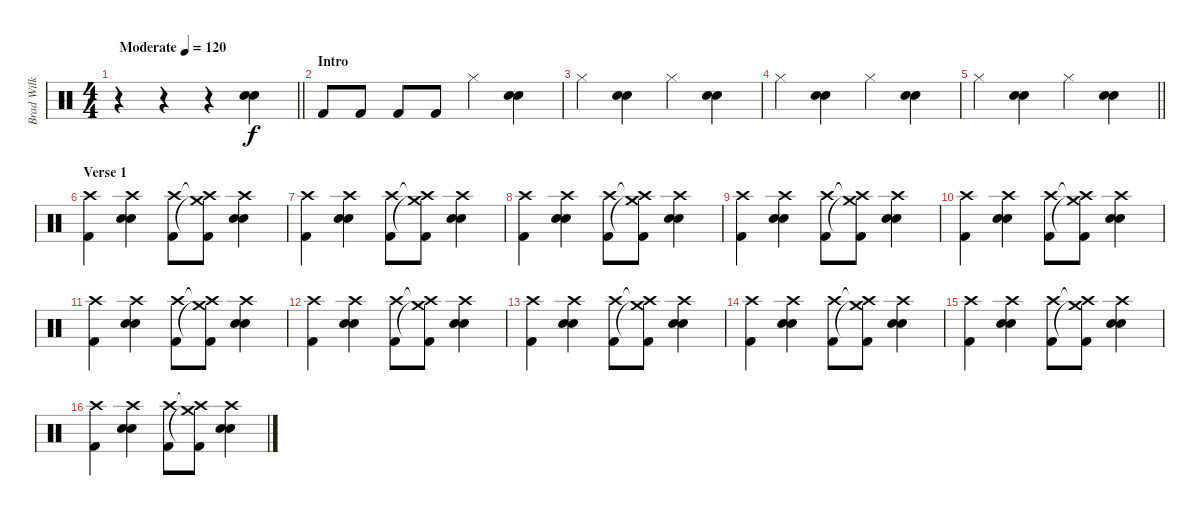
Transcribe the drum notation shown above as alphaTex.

\track ("Brad Wilk" "Brad Wilk") {instrument percussion}
\staff {score}
\articulation defaults
\ts (4 4)
\tempo (120 "Moderate")
\clef neutral
\barLineRight lightlight
\ks c
r.4{dy f} r.4 r.4 ("Electric Snare (hit)" "Snare (hit) 2").4 |
\section ("" "Intro")
"Kick (hit) 2".8 "Kick (hit) 2".8 "Kick (hit) 2".8 "Kick (hit) 2".8 "Hi-Hat (closed)".4 ("Electric Snare (hit)" "Snare (hit) 2").4 |
"Hi-Hat (closed)".4 ("Electric Snare (hit)" "Snare (hit) 2").4 "Hi-Hat (closed)".4 ("Electric Snare (hit)" "Snare (hit) 2").4 |
"Hi-Hat (closed)".4 ("Electric Snare (hit)" "Snare (hit) 2").4 "Hi-Hat (closed)".4 ("Electric Snare (hit)" "Snare (hit) 2").4 |
\barLineRight lightlight "Hi-Hat (closed)".4
("Electric Snare (hit)" "Snare (hit) 2").4 "Hi-Hat (closed)".4 ("Electric Snare (hit)" "Snare (hit) 2").4 |
\section ("" "Verse 1")
("Crash high (hit)" "Kick (hit) 2").4 ("Electric Snare (hit)" "Snare (hit) 2" "Crash high (hit)").4 ("Crash high (hit)" "Kick (hit) 2").8 ("Crash high (hit)"{t} "Crash medium (hit)"{t} "Kick (hit) 2").8 ("Electric Snare (hit)" "Snare (hit) 2" "Crash high (hit)").4 |
("Crash high (hit)" "Kick (hit) 2").4 ("Electric Snare (hit)" "Snare (hit) 2" "Crash high (hit)").4 ("Crash high (hit)" "Kick (hit) 2").8 ("Crash high (hit)"{t} "Crash medium (hit)"{t} "Kick (hit) 2").8 ("Electric Snare (hit)" "Snare (hit) 2" "Crash high (hit)").4 |
("Crash high (hit)" "Kick (hit) 2").4 ("Electric Snare (hit)" "Snare (hit) 2" "Crash high (hit)").4 ("Crash high (hit)" "Kick (hit) 2").8 ("Crash high (hit)"{t} "Crash medium (hit)"{t} "Kick (hit) 2").8 ("Electric Snare (hit)" "Snare (hit) 2" "Crash high (hit)").4 |
("Crash high (hit)" "Kick (hit) 2").4 ("Electric Snare (hit)" "Snare (hit) 2" "Crash high (hit)").4 ("Crash high (hit)" "Kick (hit) 2").8 ("Crash high (hit)"{t} "Crash medium (hit)"{t} "Kick (hit) 2").8 ("Electric Snare (hit)" "Snare (hit) 2" "Crash high (hit)").4 |
("Crash high (hit)" "Kick (hit) 2").4 ("Electric Snare (hit)" "Snare (hit) 2" "Crash high (hit)").4 ("Crash high (hit)" "Kick (hit) 2").8 ("Crash high (hit)"{t} "Crash medium (hit)"{t} "Kick (hit) 2").8 ("Electric Snare (hit)" "Snare (hit) 2" "Crash high (hit)").4 |
("Crash high (hit)" "Kick (hit) 2").4 ("Electric Snare (hit)" "Snare (hit) 2" "Crash high (hit)").4 ("Crash high (hit)" "Kick (hit) 2").8 ("Crash high (hit)"{t} "Crash medium (hit)"{t} "Kick (hit) 2").8 ("Electric Snare (hit)" "Snare (hit) 2" "Crash high (hit)").4 |
("Crash high (hit)" "Kick (hit) 2").4 ("Electric Snare (hit)" "Snare (hit) 2" "Crash high (hit)").4 ("Crash high (hit)" "Kick (hit) 2").8 ("Crash high (hit)"{t} "Crash medium (hit)"{t} "Kick (hit) 2").8 ("Electric Snare (hit)" "Snare (hit) 2" "Crash high (hit)").4 |
("Crash high (hit)" "Kick (hit) 2").4 ("Electric Snare (hit)" "Snare (hit) 2" "Crash high (hit)").4 ("Crash high (hit)" "Kick (hit) 2").8 ("Crash high (hit)"{t} "Crash medium (hit)"{t} "Kick (hit) 2").8 ("Electric Snare (hit)" "Snare (hit) 2" "Crash high (hit)").4 |
("Crash high (hit)" "Kick (hit) 2").4 ("Electric Snare (hit)" "Snare (hit) 2" "Crash high (hit)").4 ("Crash high (hit)" "Kick (hit) 2").8 ("Crash high (hit)"{t} "Crash medium (hit)"{t} "Kick (hit) 2").8 ("Electric Snare (hit)" "Snare (hit) 2" "Crash high (hit)").4 |
("Crash high (hit)" "Kick (hit) 2").4 ("Electric Snare (hit)" "Snare (hit) 2" "Crash high (hit)").4 ("Crash high (hit)" "Kick (hit) 2").8 ("Crash high (hit)"{t} "Crash medium (hit)"{t} "Kick (hit) 2").8 ("Electric Snare (hit)" "Snare (hit) 2" "Crash high (hit)").4 |
("Crash high (hit)" "Kick (hit) 2").4 ("Electric Snare (hit)" "Snare (hit) 2" "Crash high (hit)").4 ("Crash high (hit)" "Kick (hit) 2").8 ("Crash high (hit)"{t} "Crash medium (hit)"{t} "Kick (hit) 2").8 ("Electric Snare (hit)" "Snare (hit) 2" "Crash high (hit)").4
